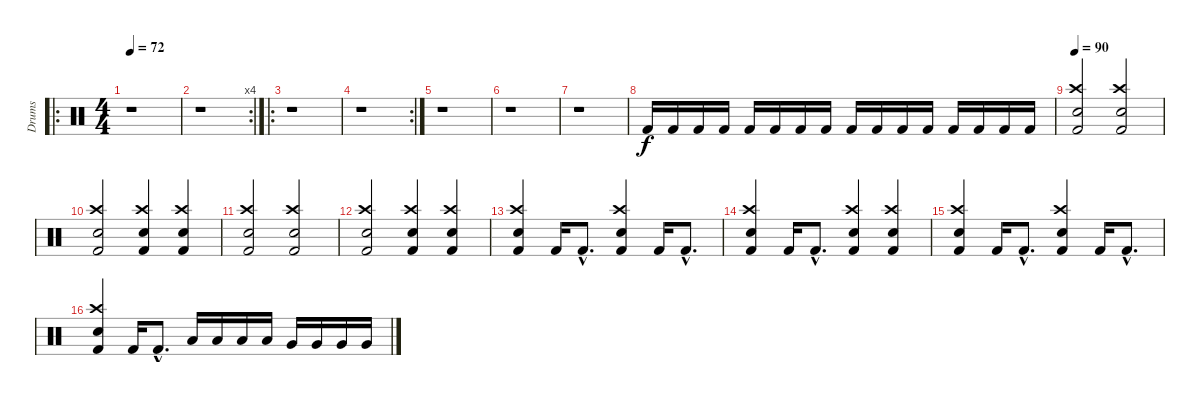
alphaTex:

\track ("Drums" "Drums") {instrument percussion}
\staff {score}
\articulation defaults
\ro
\ts (4 4)
\tempo 72
\clef neutral
\ks c
r.1{dy f} |
\rc 4
r.1 |
\ro
r.1 |
\rc 2
r.1 |
r.1 |
r.1 |
r.1 |
"Kick (hit) 2".16{volume 4} "Kick (hit) 2".16{volume 4} "Kick (hit) 2".16{volume 4} "Kick (hit) 2".16{volume 4} "Kick (hit) 2".16{volume 5} "Kick (hit) 2".16{volume 6} "Kick (hit) 2".16{volume 7} "Kick (hit) 2".16{volume 8} "Kick (hit) 2".16{volume 9} "Kick (hit) 2".16{volume 10} "Kick (hit) 2".16{volume 11} "Kick (hit) 2".16{volume 12} "Kick (hit) 2".16{volume 13} "Kick (hit) 2".16{volume 14} "Kick (hit) 2".16{volume 15} "Kick (hit) 2".16{volume 16} |
\tempo 90
("Crash high (hit)" "Kick (hit) 2" "Snare (hit) 2").2 ("Crash high (hit)" "Kick (hit) 2" "Snare (hit) 2").2 |
("Crash high (hit)" "Kick (hit) 2" "Snare (hit) 2").2 ("Crash high (hit)" "Kick (hit) 2" "Snare (hit) 2").4 ("Crash high (hit)" "Kick (hit) 2" "Snare (hit) 2").4 |
("Crash high (hit)" "Kick (hit) 2" "Snare (hit) 2").2 ("Crash high (hit)" "Kick (hit) 2" "Snare (hit) 2").2 |
("Crash high (hit)" "Kick (hit) 2" "Snare (hit) 2").2 ("Crash high (hit)" "Kick (hit) 2" "Snare (hit) 2").4 ("Crash high (hit)" "Kick (hit) 2" "Snare (hit) 2").4 |
("Crash high (hit)" "Kick (hit) 2" "Snare (hit) 2").4 "Kick (hit) 2".16 "Kick (hit) 2"{hac}.8{d} ("Crash high (hit)" "Kick (hit) 2" "Snare (hit) 2").4 "Kick (hit) 2".16 "Kick (hit) 2"{hac}.8{d} |
("Crash high (hit)" "Kick (hit) 2" "Snare (hit) 2").4 "Kick (hit) 2".16 "Kick (hit) 2"{hac}.8{d} ("Crash high (hit)" "Kick (hit) 2" "Snare (hit) 2").4 ("Crash high (hit)" "Kick (hit) 2" "Snare (hit) 2").4 |
("Crash high (hit)" "Kick (hit) 2" "Snare (hit) 2").4 "Kick (hit) 2".16 "Kick (hit) 2"{hac}.8{d} ("Crash high (hit)" "Kick (hit) 2" "Snare (hit) 2").4 "Kick (hit) 2".16 "Kick (hit) 2"{hac}.8{d} |
("Crash high (hit)" "Kick (hit) 2" "Snare (hit) 2").4 "Kick (hit) 2".16 "Kick (hit) 2"{hac}.8{d} "Low Tom (hit)".16 "Low Tom (hit)".16 "Low Tom (hit)".16 "Low Tom (hit)".16 "Very Low Tom (hit)".16 "Very Low Tom (hit)".16 "Very Low Tom (hit)".16 "Very Low Tom (hit)".16
